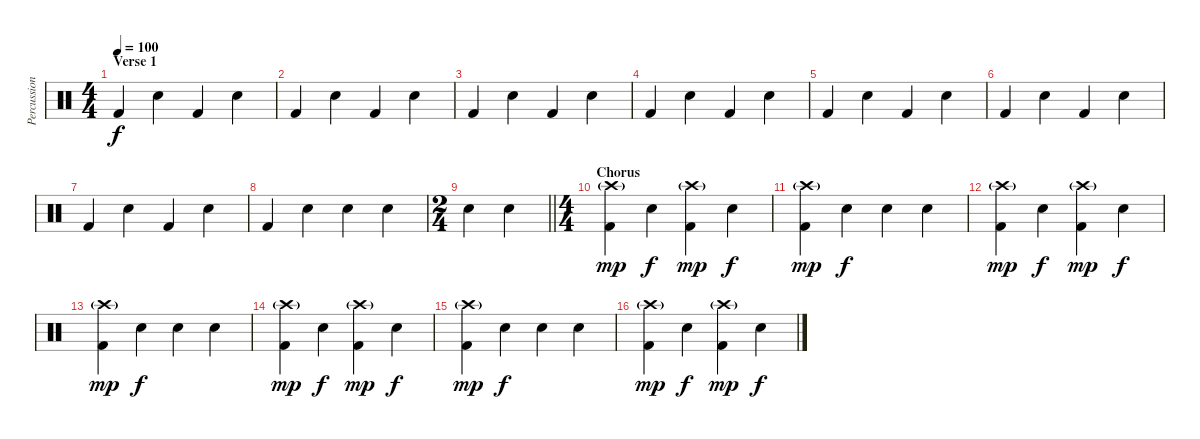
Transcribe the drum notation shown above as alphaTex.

\track ("Percussion" "Percussion") {instrument percussion}
\staff {score}
\articulation defaults
\ts (4 4)
\section ("" "Verse 1")
\tempo 100
\clef neutral
\ks c "Kick (hit) 2".4{dy f} "Snare (hit) 2".4 "Kick (hit) 2".4 "Snare (hit) 2".4
|
"Kick (hit) 2".4 "Snare (hit) 2".4 "Kick (hit) 2".4 "Snare (hit) 2".4 |
"Kick (hit) 2".4 "Snare (hit) 2".4 "Kick (hit) 2".4 "Snare (hit) 2".4 |
"Kick (hit) 2".4 "Snare (hit) 2".4 "Kick (hit) 2".4 "Snare (hit) 2".4 |
"Kick (hit) 2".4 "Snare (hit) 2".4 "Kick (hit) 2".4 "Snare (hit) 2".4 |
"Kick (hit) 2".4 "Snare (hit) 2".4 "Kick (hit) 2".4 "Snare (hit) 2".4 |
"Kick (hit) 2".4 "Snare (hit) 2".4 "Kick (hit) 2".4 "Snare (hit) 2".4 |
"Kick (hit) 2".4 "Snare (hit) 2".4 "Snare (hit) 2".4 "Snare (hit) 2".4 |
\ts (2 4)
\barLineRight lightlight "Snare (hit) 2".4 "Snare (hit) 2".4
|
\ts (4 4)
\section ("" "Chorus")
("Crash high (hit)"{g} "Kick (hit) 2").4{dy mp} "Snare (hit) 2".4{dy f} ("Crash high (hit)"{g} "Kick (hit) 2").4{dy mp} "Snare (hit) 2".4{dy f} |
("Crash high (hit)"{g} "Kick (hit) 2").4{dy mp} "Snare (hit) 2".4{dy f} "Snare (hit) 2".4 "Snare (hit) 2".4 |
("Crash high (hit)"{g} "Kick (hit) 2").4{dy mp} "Snare (hit) 2".4{dy f} ("Crash high (hit)"{g} "Kick (hit) 2").4{dy mp} "Snare (hit) 2".4{dy f} |
("Crash high (hit)"{g} "Kick (hit) 2").4{dy mp} "Snare (hit) 2".4{dy f} "Snare (hit) 2".4 "Snare (hit) 2".4 |
("Crash high (hit)"{g} "Kick (hit) 2").4{dy mp} "Snare (hit) 2".4{dy f} ("Crash high (hit)"{g} "Kick (hit) 2").4{dy mp} "Snare (hit) 2".4{dy f} |
("Crash high (hit)"{g} "Kick (hit) 2").4{dy mp} "Snare (hit) 2".4{dy f} "Snare (hit) 2".4 "Snare (hit) 2".4 |
("Crash high (hit)"{g} "Kick (hit) 2").4{dy mp} "Snare (hit) 2".4{dy f} ("Crash high (hit)"{g} "Kick (hit) 2").4{dy mp} "Snare (hit) 2".4{dy f}
